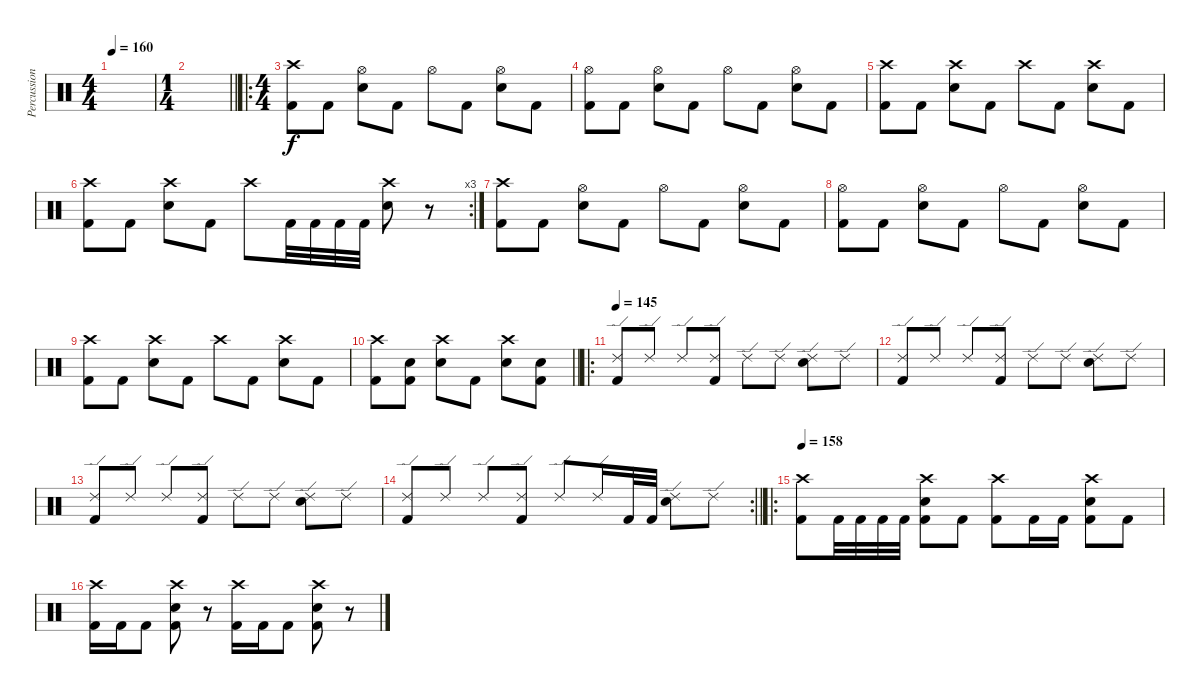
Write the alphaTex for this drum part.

\track ("Percussion" "Percussion") {instrument percussion}
\staff {score}
\articulation defaults
\ts (4 4)
\tempo 160
\clef neutral
\ks c
|
\ts (1 4)
\barLineRight lightlight
|
\ro
\ts (4 4)
\section ("" "")
("Crash high (hit)" "Kick (hit) 2").8 "Kick (hit) 2".8 ("Hi-Hat (open)" "Snare (hit) 2").8 "Kick (hit) 2".8 "Hi-Hat (open)".8 "Kick (hit) 2".8 ("Hi-Hat (open)" "Snare (hit) 2").8 "Kick (hit) 2".8 |
("Hi-Hat (open)" "Kick (hit) 2").8 "Kick (hit) 2".8 ("Hi-Hat (open)" "Snare (hit) 2").8 "Kick (hit) 2".8 "Hi-Hat (open)".8 "Kick (hit) 2".8 ("Hi-Hat (open)" "Snare (hit) 2").8 "Kick (hit) 2".8 |
("Crash high (hit)" "Kick (hit) 2").8 "Kick (hit) 2".8 ("Crash high (hit)" "Snare (hit) 2").8 "Kick (hit) 2".8 "Crash high (hit)".8 "Kick (hit) 2".8 ("Crash high (hit)" "Snare (hit) 2").8 "Kick (hit) 2".8 |
\rc 3
("Crash high (hit)" "Kick (hit) 2").8 "Kick (hit) 2".8 ("Crash high (hit)" "Snare (hit) 2").8 "Kick (hit) 2".8 "Crash high (hit)".8 "Kick (hit) 2".32 "Kick (hit) 2".32 "Kick (hit) 2".32 "Kick (hit) 2".32 ("Crash high (hit)" "Snare (hit) 2").8 r.8 |
("Crash high (hit)" "Kick (hit) 2").8 "Kick (hit) 2".8 ("Hi-Hat (open)" "Snare (hit) 2").8 "Kick (hit) 2".8 "Hi-Hat (open)".8 "Kick (hit) 2".8 ("Hi-Hat (open)" "Snare (hit) 2").8 "Kick (hit) 2".8 |
("Hi-Hat (open)" "Kick (hit) 2").8 "Kick (hit) 2".8 ("Hi-Hat (open)" "Snare (hit) 2").8 "Kick (hit) 2".8 "Hi-Hat (open)".8 "Kick (hit) 2".8 ("Hi-Hat (open)" "Snare (hit) 2").8 "Kick (hit) 2".8 |
("Crash high (hit)" "Kick (hit) 2").8 "Kick (hit) 2".8 ("Crash high (hit)" "Snare (hit) 2").8 "Kick (hit) 2".8 "Crash high (hit)".8 "Kick (hit) 2".8 ("Crash high (hit)" "Snare (hit) 2").8 "Kick (hit) 2".8 |
\barLineRight lightlight
("Crash high (hit)" "Kick (hit) 2").8 ("Snare (hit) 2" "Kick (hit) 2").8 ("Crash high (hit)" "Snare (hit) 2").8 "Kick (hit) 2".8 ("Crash high (hit)" "Snare (hit) 2").8 ("Snare (hit) 2" "Kick (hit) 2").8 |
\ro
\section ("" "")
\tempo 145
("Ride (edge) 2" "Kick (hit) 2").8 "Ride (edge) 2".8 "Ride (edge) 2".8 ("Ride (edge) 2" "Kick (hit) 2").8 "Ride (edge) 2".8 "Ride (edge) 2".8 ("Ride (edge) 2" "Snare (hit) 2").8 "Ride (edge) 2".8 |
("Ride (edge) 2" "Kick (hit) 2").8 "Ride (edge) 2".8 "Ride (edge) 2".8 ("Ride (edge) 2" "Kick (hit) 2").8 "Ride (edge) 2".8 "Ride (edge) 2".8 ("Ride (edge) 2" "Snare (hit) 2").8 "Ride (edge) 2".8 |
("Ride (edge) 2" "Kick (hit) 2").8 "Ride (edge) 2".8 "Ride (edge) 2".8 ("Ride (edge) 2" "Kick (hit) 2").8 "Ride (edge) 2".8 "Ride (edge) 2".8 ("Ride (edge) 2" "Snare (hit) 2").8 "Ride (edge) 2".8 |
\rc 2
\barLineRight lightlight
("Ride (edge) 2" "Kick (hit) 2").8 "Ride (edge) 2".8 "Ride (edge) 2".8 ("Ride (edge) 2" "Kick (hit) 2").8 "Ride (edge) 2".8 "Ride (edge) 2".16 "Kick (hit) 2".32 "Kick (hit) 2".32 ("Ride (edge) 2" "Snare (hit) 2").8 "Ride (edge) 2".8 |
\ro
\section ("" "")
\tempo 158
("Crash high (hit)" "Kick (hit) 2").8 "Kick (hit) 2".32 "Kick (hit) 2".32 "Kick (hit) 2".32 "Kick (hit) 2".32 ("Crash high (hit)" "Snare (hit) 2" "Kick (hit) 2").8 "Kick (hit) 2".8 ("Crash high (hit)" "Kick (hit) 2").8 "Kick (hit) 2".16 "Kick (hit) 2".16 ("Crash high (hit)" "Snare (hit) 2" "Kick (hit) 2").8 "Kick (hit) 2".8 |
("Crash high (hit)" "Kick (hit) 2").16 "Kick (hit) 2".16 "Kick (hit) 2".8 ("Crash high (hit)" "Snare (hit) 2" "Kick (hit) 2").8 r.8 ("Crash high (hit)" "Kick (hit) 2").16 "Kick (hit) 2".16 "Kick (hit) 2".8 ("Crash high (hit)" "Snare (hit) 2" "Kick (hit) 2").8 r.8
